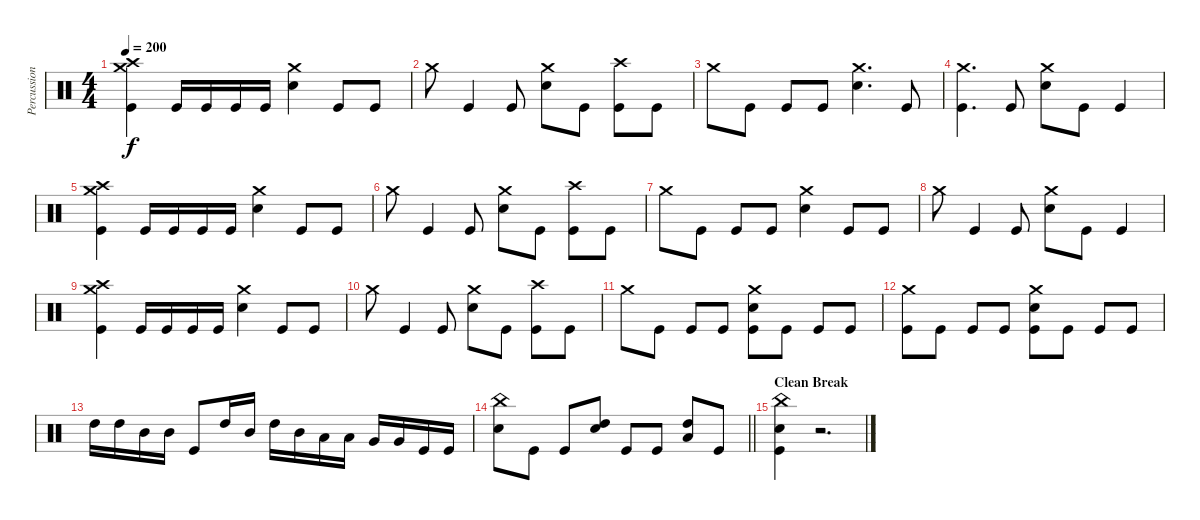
\track ("Percussion" "Percussion") {instrument percussion}
\staff {score}
\articulation defaults
\ts (4 4)
\tempo 200
\clef neutral
\ks c
("Crash medium (hit)" "Crash high (hit)" "Kick (hit)").4{dy f} "Kick (hit)".16 "Kick (hit)".16 "Kick (hit)".16 "Kick (hit)".16 ("Crash medium (hit)" "Snare (hit) 2").4 "Kick (hit)".8 "Kick (hit)".8 |
"Crash medium (hit)".8 "Kick (hit)".4 "Kick (hit)".8 ("Crash medium (hit)" "Snare (hit) 2").8 "Kick (hit)".8 ("Crash high (hit)" "Kick (hit)").8 "Kick (hit)".8 |
"Crash medium (hit)".8 "Kick (hit)".8 "Kick (hit)".8 "Kick (hit)".8 ("Crash medium (hit)" "Snare (hit) 2").4{d} "Kick (hit)".8 |
("Crash medium (hit)" "Kick (hit)").4{d} "Kick (hit)".8 ("Crash medium (hit)" "Snare (hit) 2").8 "Kick (hit)".8 "Kick (hit)".4 |
("Crash medium (hit)" "Crash high (hit)" "Kick (hit)").4 "Kick (hit)".16 "Kick (hit)".16 "Kick (hit)".16 "Kick (hit)".16 ("Crash medium (hit)" "Snare (hit) 2").4 "Kick (hit)".8 "Kick (hit)".8 |
"Crash medium (hit)".8 "Kick (hit)".4 "Kick (hit)".8 ("Crash medium (hit)" "Snare (hit) 2").8 "Kick (hit)".8 ("Crash high (hit)" "Kick (hit)").8 "Kick (hit)".8 |
"Crash medium (hit)".8 "Kick (hit)".8 "Kick (hit)".8 "Kick (hit)".8 ("Crash medium (hit)" "Snare (hit) 2").4 "Kick (hit)".8 "Kick (hit)".8 |
"Crash medium (hit)".8 "Kick (hit)".4 "Kick (hit)".8 ("Crash medium (hit)" "Snare (hit) 2").8 "Kick (hit)".8 "Kick (hit)".4 |
("Crash medium (hit)" "Crash high (hit)" "Kick (hit)").4 "Kick (hit)".16 "Kick (hit)".16 "Kick (hit)".16 "Kick (hit)".16 ("Crash medium (hit)" "Snare (hit) 2").4 "Kick (hit)".8 "Kick (hit)".8 |
"Crash medium (hit)".8 "Kick (hit)".4 "Kick (hit)".8 ("Crash medium (hit)" "Snare (hit) 2").8 "Kick (hit)".8 ("Crash high (hit)" "Kick (hit)").8 "Kick (hit)".8 |
"Crash medium (hit)".8 "Kick (hit)".8 "Kick (hit)".8 "Kick (hit)".8 ("Crash medium (hit)" "Snare (hit) 2" "Kick (hit)").8 "Kick (hit)".8 "Kick (hit)".8 "Kick (hit)".8 |
("Crash medium (hit)" "Kick (hit)").8 "Kick (hit)".8 "Kick (hit)".8 "Kick (hit)".8 ("Crash medium (hit)" "Snare (hit) 2" "Kick (hit)").8 "Kick (hit)".8 "Kick (hit)".8 "Kick (hit)".8 |
"High Tom (hit)".16 "High Tom (hit)".16 "Mid Tom (hit)".16 "Mid Tom (hit)".16 "Kick (hit)".8 "High Tom (hit)".16 "Mid Tom (hit)".16 "High Tom (hit)".16 "Mid Tom (hit)".16 "Low Tom (hit)".16 "Low Tom (hit)".16 "Very Low Tom (hit)".16 "Very Low Tom (hit)".16 "Kick (hit)".16 "Kick (hit)".16 |
\barLineRight lightlight
("China (hit)" "Snare (hit) 2").8 "Kick (hit)".8 "Kick (hit)".8 ("Snare (hit) 2" "High Tom (hit)").8 "Kick (hit)".8 "Kick (hit)".8 ("High Tom (hit)" "Low Tom (hit)").8 "Kick (hit)".8 |
\section ("" "Clean Break")
("China (hit)" "Snare (hit) 2" "Kick (hit)").4 r.2{d}
